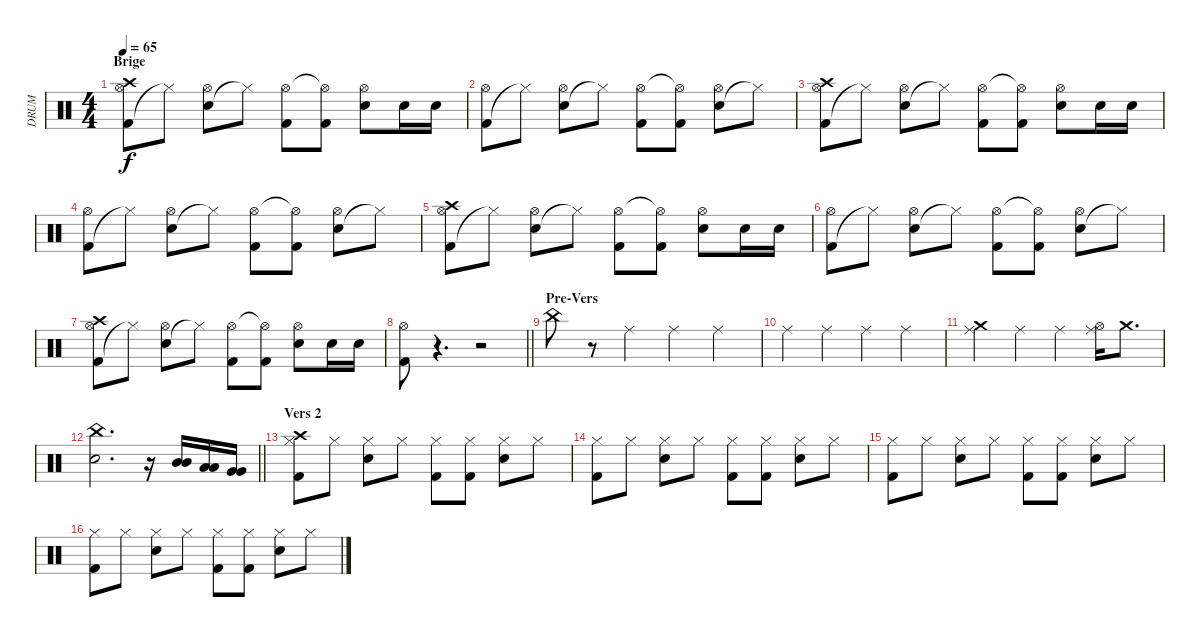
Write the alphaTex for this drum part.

\track ("DRUM" "DRUM") {instrument percussion}
\staff {score}
\articulation defaults
\ts (4 4)
\section ("" "Brige")
\tempo 65
\clef neutral
\ks c
("Kick (hit) 2" "Hi-Hat (open)" "Crash high (hit)").8{dy f} "Hi-Hat (closed)"{t}.8 ("Electric Snare (hit)" "Hi-Hat (open)").8 "Hi-Hat (closed)"{t}.8 ("Kick (hit) 2" "Hi-Hat (open)").8 ("Kick (hit) 2" "Hi-Hat (open)"{t}).8 ("Electric Snare (hit)" "Hi-Hat (open)").8 "Electric Snare (hit)".16 "Electric Snare (hit)".16 |
("Kick (hit) 2" "Hi-Hat (open)").8 "Hi-Hat (closed)"{t}.8 ("Electric Snare (hit)" "Hi-Hat (open)").8 "Hi-Hat (closed)"{t}.8 ("Kick (hit) 2" "Hi-Hat (open)").8 ("Kick (hit) 2" "Hi-Hat (open)"{t}).8 ("Electric Snare (hit)" "Hi-Hat (open)").8 "Hi-Hat (closed)"{t}.8 |
("Kick (hit) 2" "Hi-Hat (open)" "Crash high (hit)").8 "Hi-Hat (closed)"{t}.8 ("Electric Snare (hit)" "Hi-Hat (open)").8 "Hi-Hat (closed)"{t}.8 ("Kick (hit) 2" "Hi-Hat (open)").8 ("Kick (hit) 2" "Hi-Hat (open)"{t}).8 ("Electric Snare (hit)" "Hi-Hat (open)").8 "Electric Snare (hit)".16 "Electric Snare (hit)".16 |
("Kick (hit) 2" "Hi-Hat (open)").8 "Hi-Hat (closed)"{t}.8 ("Electric Snare (hit)" "Hi-Hat (open)").8 "Hi-Hat (closed)"{t}.8 ("Kick (hit) 2" "Hi-Hat (open)").8 ("Kick (hit) 2" "Hi-Hat (open)"{t}).8 ("Electric Snare (hit)" "Hi-Hat (open)").8 "Hi-Hat (closed)"{t}.8 |
("Kick (hit) 2" "Hi-Hat (open)" "Crash high (hit)").8 "Hi-Hat (closed)"{t}.8 ("Electric Snare (hit)" "Hi-Hat (open)").8 "Hi-Hat (closed)"{t}.8 ("Kick (hit) 2" "Hi-Hat (open)").8 ("Kick (hit) 2" "Hi-Hat (open)"{t}).8 ("Electric Snare (hit)" "Hi-Hat (open)").8 "Electric Snare (hit)".16 "Electric Snare (hit)".16 |
("Kick (hit) 2" "Hi-Hat (open)").8 "Hi-Hat (closed)"{t}.8 ("Electric Snare (hit)" "Hi-Hat (open)").8 "Hi-Hat (closed)"{t}.8 ("Kick (hit) 2" "Hi-Hat (open)").8 ("Kick (hit) 2" "Hi-Hat (open)"{t}).8 ("Electric Snare (hit)" "Hi-Hat (open)").8 "Hi-Hat (closed)"{t}.8 |
("Kick (hit) 2" "Hi-Hat (open)" "Crash high (hit)").8 "Hi-Hat (closed)"{t}.8 ("Electric Snare (hit)" "Hi-Hat (open)").8 "Hi-Hat (closed)"{t}.8 ("Kick (hit) 2" "Hi-Hat (open)").8 ("Kick (hit) 2" "Hi-Hat (open)"{t}).8 ("Electric Snare (hit)" "Hi-Hat (open)").8 "Electric Snare (hit)".16 "Electric Snare (hit)".16 |
\barLineRight lightlight
("Kick (hit) 2" "Hi-Hat (open)").8 r.4{d} r.2 |
\section ("" "Pre-Vers")
"China (hit)".8 r.8 "Ride (middle)".4 "Ride (middle)".4 "Ride (middle)".4 |
"Ride (middle)".4 "Ride (middle)".4 "Ride (middle)".4 "Ride (middle)".4 |
("Ride (middle)" "Crash medium (hit)").4 "Ride (middle)".4 "Ride (middle)".4 ("Ride (middle)" "Hi-Hat (open)").16 "Crash medium (hit)".8{d} |
\barLineRight lightlight
("China (hit)" "Electric Snare (hit)").2{d} r.16 ("Mid Tom (hit)" "Mid Tom (hit)").16 ("Low Tom (hit)" "Low Tom (hit)").16 ("Very Low Tom (hit)" "Very Low Tom (hit)").16 |
\section ("" "Vers 2")
("Kick (hit) 2" "Hi-Hat (closed)" "Crash high (hit)").8 "Hi-Hat (closed)".8 ("Electric Snare (hit)" "Hi-Hat (closed)").8 "Hi-Hat (closed)".8 ("Kick (hit) 2" "Hi-Hat (closed)").8 ("Kick (hit) 2" "Hi-Hat (closed)").8 ("Electric Snare (hit)" "Hi-Hat (closed)").8 "Hi-Hat (closed)".8 |
("Kick (hit) 2" "Hi-Hat (closed)").8 "Hi-Hat (closed)".8 ("Electric Snare (hit)" "Hi-Hat (closed)").8 "Hi-Hat (closed)".8 ("Kick (hit) 2" "Hi-Hat (closed)").8 ("Kick (hit) 2" "Hi-Hat (closed)").8 ("Electric Snare (hit)" "Hi-Hat (closed)").8 "Hi-Hat (closed)".8 |
("Kick (hit) 2" "Hi-Hat (closed)").8 "Hi-Hat (closed)".8 ("Electric Snare (hit)" "Hi-Hat (closed)").8 "Hi-Hat (closed)".8 ("Kick (hit) 2" "Hi-Hat (closed)").8 ("Kick (hit) 2" "Hi-Hat (closed)").8 ("Electric Snare (hit)" "Hi-Hat (closed)").8 "Hi-Hat (closed)".8 |
("Kick (hit) 2" "Hi-Hat (closed)").8 "Hi-Hat (closed)".8 ("Electric Snare (hit)" "Hi-Hat (closed)").8 "Hi-Hat (closed)".8 ("Kick (hit) 2" "Hi-Hat (closed)").8 ("Kick (hit) 2" "Hi-Hat (closed)").8 ("Electric Snare (hit)" "Hi-Hat (closed)").8 "Hi-Hat (closed)".8
